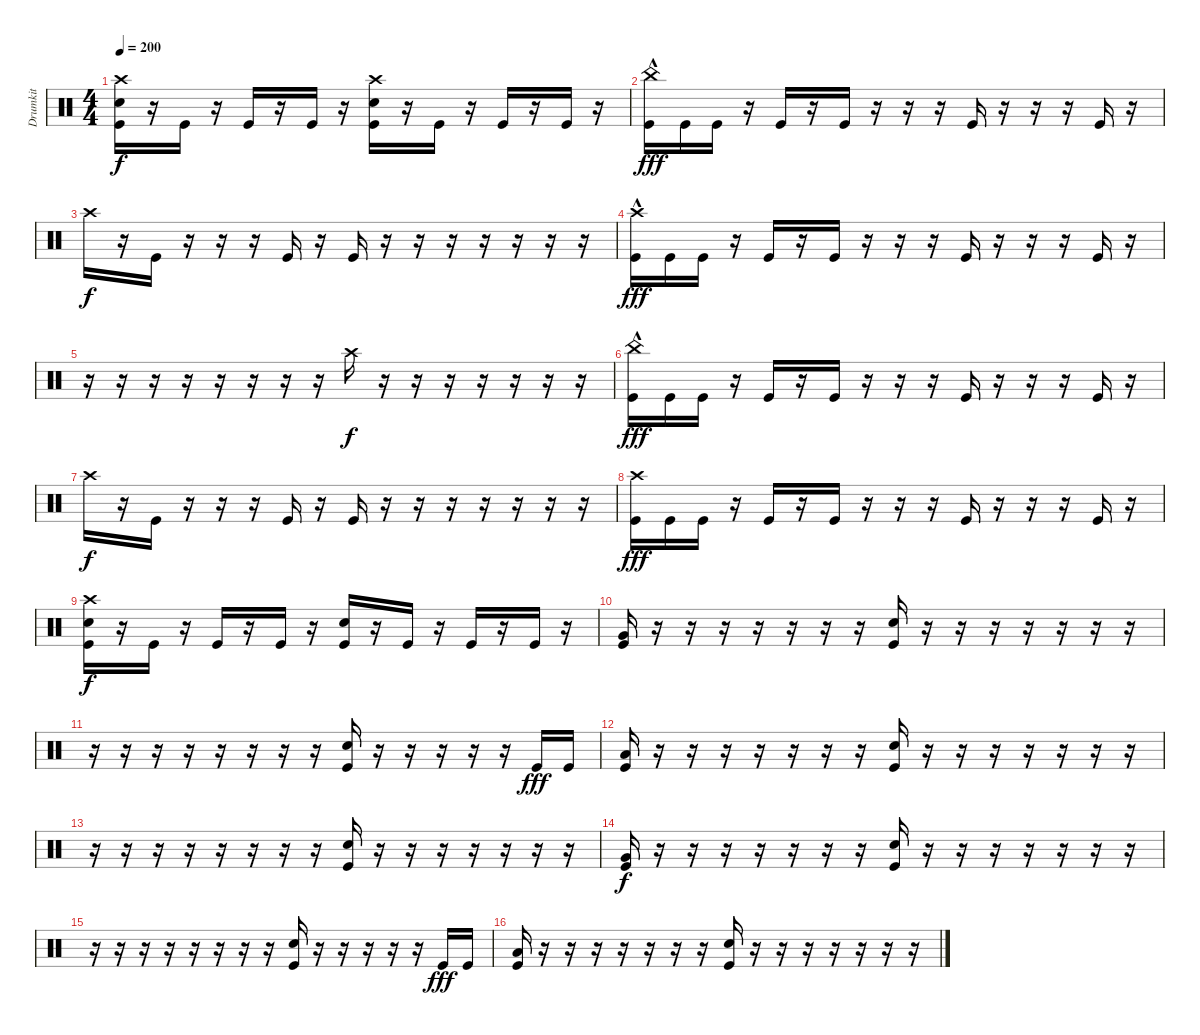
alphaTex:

\track ("Drumkit" "Drumkit") {instrument percussion}
\staff {score}
\articulation defaults
\ts (4 4)
\tempo 200
\clef neutral
\ks c
("Crash high (hit)" "Snare (hit) 2" "Kick (hit)").16{dy f} r.16 "Kick (hit)".16 r.16 "Kick (hit)".16 r.16 "Kick (hit)".16 r.16 ("Crash high (hit)" "Snare (hit) 2" "Kick (hit)").16 r.16 "Kick (hit)".16 r.16 "Kick (hit)".16 r.16 "Kick (hit)".16 r.16 |
("China (hit)" "Kick (hit)"{hac}).16{dy fff} "Kick (hit)".16 "Kick (hit)".16 r.16 "Kick (hit)".16 r.16 "Kick (hit)".16 r.16 r.16 r.16 "Kick (hit)".16 r.16 r.16 r.16 "Kick (hit)".16 r.16 |
"Crash high (hit)".16{dy f} r.16 "Kick (hit)".16 r.16 r.16 r.16 "Kick (hit)".16 r.16 "Kick (hit)".16 r.16 r.16 r.16 r.16 r.16 r.16 r.16 |
("Crash high (hit)" "Kick (hit)"{hac}).16{dy fff} "Kick (hit)".16 "Kick (hit)".16 r.16 "Kick (hit)".16 r.16 "Kick (hit)".16 r.16 r.16 r.16 "Kick (hit)".16 r.16 r.16 r.16 "Kick (hit)".16 r.16 |
r.16 r.16 r.16 r.16 r.16 r.16 r.16 r.16 "Crash high (hit)".16{dy f} r.16 r.16 r.16 r.16 r.16 r.16 r.16 |
("China (hit)" "Kick (hit)"{hac}).16{dy fff} "Kick (hit)".16 "Kick (hit)".16 r.16 "Kick (hit)".16 r.16 "Kick (hit)".16 r.16 r.16 r.16 "Kick (hit)".16 r.16 r.16 r.16 "Kick (hit)".16 r.16 |
"Crash high (hit)".16{dy f} r.16 "Kick (hit)".16 r.16 r.16 r.16 "Kick (hit)".16 r.16 "Kick (hit)".16 r.16 r.16 r.16 r.16 r.16 r.16 r.16 |
("Crash high (hit)" "Kick (hit)").16{dy fff} "Kick (hit)".16 "Kick (hit)".16 r.16 "Kick (hit)".16 r.16 "Kick (hit)".16 r.16 r.16 r.16 "Kick (hit)".16 r.16 r.16 r.16 "Kick (hit)".16 r.16 |
("Crash high (hit)" "Snare (hit) 2" "Kick (hit)").16{dy f} r.16 "Kick (hit)".16 r.16 "Kick (hit)".16 r.16 "Kick (hit)".16 r.16 ("Snare (hit) 2" "Kick (hit)").16 r.16 "Kick (hit)".16 r.16 "Kick (hit)".16 r.16 "Kick (hit)".16 r.16 |
("Very Low Tom (hit)" "Kick (hit)").16 r.16 r.16 r.16 r.16 r.16 r.16 r.16 ("Snare (hit) 2" "Kick (hit)").16 r.16 r.16 r.16 r.16 r.16 r.16 r.16 |
r.16 r.16 r.16 r.16 r.16 r.16 r.16 r.16 ("Snare (hit) 2" "Kick (hit)").16 r.16 r.16 r.16 r.16 r.16 "Kick (hit)".16{dy fff} "Kick (hit)".16 |
("Low Tom (hit)" "Kick (hit)").16 r.16 r.16 r.16 r.16 r.16 r.16 r.16 ("Snare (hit) 2" "Kick (hit)").16 r.16 r.16 r.16 r.16 r.16 r.16 r.16 |
r.16 r.16 r.16 r.16 r.16 r.16 r.16 r.16 ("Snare (hit) 2" "Kick (hit)").16 r.16 r.16 r.16 r.16 r.16 r.16 r.16 |
("Very Low Tom (hit)" "Kick (hit)").16{dy f} r.16 r.16 r.16 r.16 r.16 r.16 r.16 ("Snare (hit) 2" "Kick (hit)").16 r.16 r.16 r.16 r.16 r.16 r.16 r.16 |
r.16 r.16 r.16 r.16 r.16 r.16 r.16 r.16 ("Snare (hit) 2" "Kick (hit)").16 r.16 r.16 r.16 r.16 r.16 "Kick (hit)".16{dy fff} "Kick (hit)".16 |
("Low Tom (hit)" "Kick (hit)").16 r.16 r.16 r.16 r.16 r.16 r.16 r.16 ("Snare (hit) 2" "Kick (hit)").16 r.16 r.16 r.16 r.16 r.16 r.16 r.16
